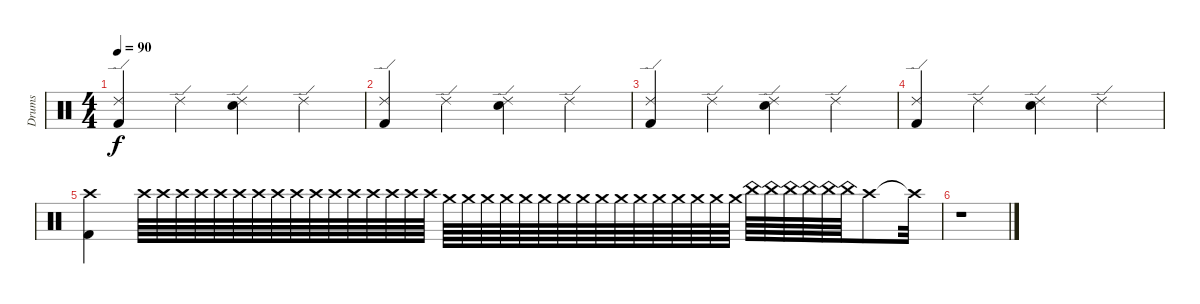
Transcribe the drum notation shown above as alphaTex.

\track ("Drums" "Drums") {instrument percussion}
\staff {score}
\articulation defaults
\ts (4 4)
\tempo 90
\clef neutral
\ks c
("Ride (edge) 2" "Kick (hit) 2").4{dy f} "Ride (edge) 2".4 ("Ride (edge) 2" "Electric Snare (hit)").4 "Ride (edge) 2".4 |
("Ride (edge) 2" "Kick (hit) 2").4 "Ride (edge) 2".4 ("Ride (edge) 2" "Electric Snare (hit)").4 "Ride (edge) 2".4 |
("Ride (edge) 2" "Kick (hit) 2").4 "Ride (edge) 2".4 ("Ride (edge) 2" "Electric Snare (hit)").4 "Ride (edge) 2".4 |
("Ride (edge) 2" "Kick (hit) 2").4 "Ride (edge) 2".4 ("Ride (edge) 2" "Electric Snare (hit)").4 "Ride (edge) 2".4 |
("Crash high (hit)" "Kick (hit) 2").4 "Crash high (hit)".64 "Crash high (hit)".64 "Crash high (hit)".64 "Crash high (hit)".64 "Crash high (hit)".64 "Crash high (hit)".64 "Crash high (hit)".64 "Crash high (hit)".64 "Crash high (hit)".64 "Crash high (hit)".64 "Crash high (hit)".64 "Crash high (hit)".64 "Crash high (hit)".64 "Crash high (hit)".64 "Crash high (hit)".64 "Crash high (hit)".64 "Crash medium (hit)".64 "Crash medium (hit)".64 "Crash medium (hit)".64 "Crash medium (hit)".64 "Crash medium (hit)".64 "Crash medium (hit)".64 "Crash medium (hit)".64 "Crash medium (hit)".64 "Crash medium (hit)".64 "Crash medium (hit)".64 "Crash medium (hit)".64 "Crash medium (hit)".64 "Crash medium (hit)".64 "Crash medium (hit)".64 "Crash medium (hit)".64 "Crash medium (hit)".64 "China (hit)".64 "China (hit)".64 "China (hit)".64 "China (hit)".64 "China (hit)".64 "China (hit)".64 "Crash high (hit)".8 "Crash high (hit)"{t}.32 |
r.1
